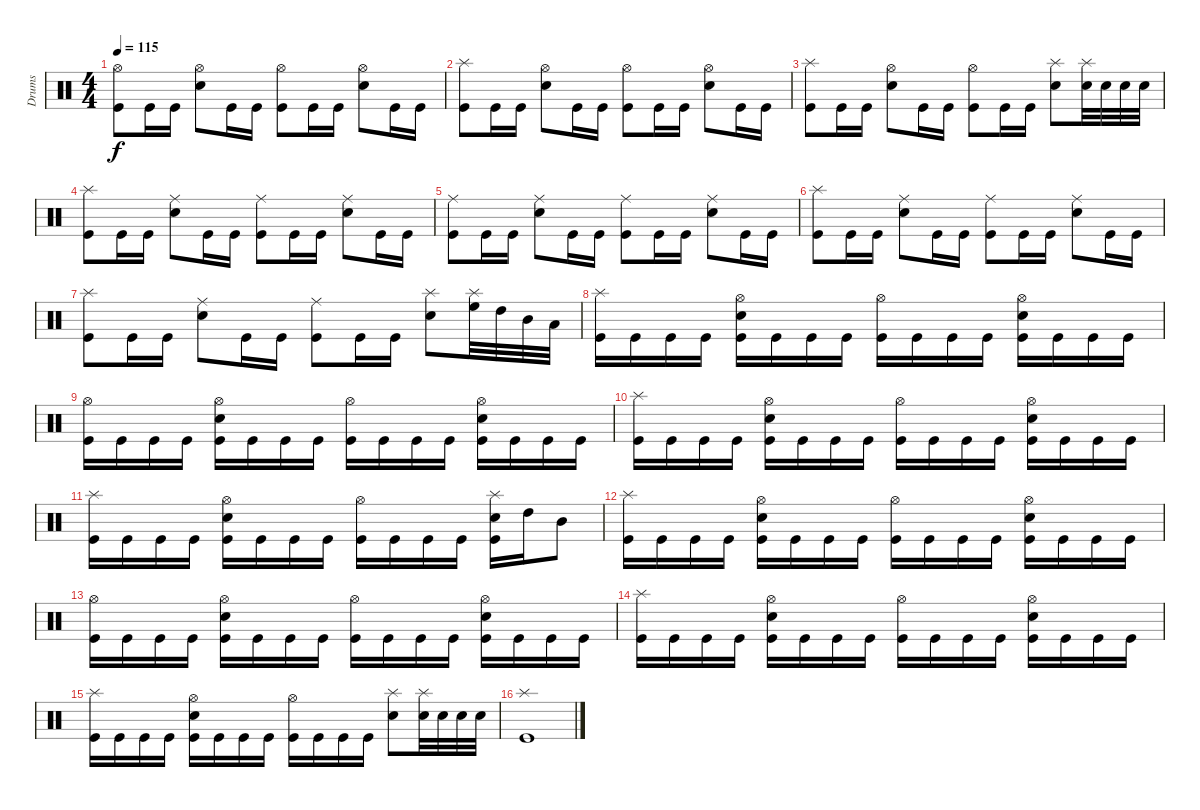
\track ("Drums" "Drums") {instrument percussion}
\staff {score}
\articulation defaults
\ts (4 4)
\tempo 115
\clef neutral
\ks c
("Hi-Hat (open)" "Kick (hit)").8{dy f} "Kick (hit)".16 "Kick (hit)".16 ("Hi-Hat (open)" "Snare (hit) 2").8 "Kick (hit)".16 "Kick (hit)".16 ("Hi-Hat (open)" "Kick (hit)").8 "Kick (hit)".16 "Kick (hit)".16 ("Hi-Hat (open)" "Snare (hit) 2").8 "Kick (hit)".16 "Kick (hit)".16 |
("Splash (hit)" "Kick (hit)").8 "Kick (hit)".16 "Kick (hit)".16 ("Hi-Hat (open)" "Snare (hit) 2").8 "Kick (hit)".16 "Kick (hit)".16 ("Hi-Hat (open)" "Kick (hit)").8 "Kick (hit)".16 "Kick (hit)".16 ("Hi-Hat (open)" "Snare (hit) 2").8 "Kick (hit)".16 "Kick (hit)".16 |
("Splash (hit)" "Kick (hit)").8 "Kick (hit)".16 "Kick (hit)".16 ("Hi-Hat (open)" "Snare (hit) 2").8 "Kick (hit)".16 "Kick (hit)".16 ("Hi-Hat (open)" "Kick (hit)").8 "Kick (hit)".16 "Kick (hit)".16 ("Splash (hit)" "Snare (hit) 2").8 ("Splash (hit)" "Snare (hit) 2").32 "Snare (hit) 2".32 "Snare (hit) 2".32 "Snare (hit) 2".32 |
("Splash (hit)" "Kick (hit)").8 "Kick (hit)".16 "Kick (hit)".16 ("Ride (middle)" "Snare (hit) 2").8 "Kick (hit)".16 "Kick (hit)".16 ("Ride (middle)" "Kick (hit)").8 "Kick (hit)".16 "Kick (hit)".16 ("Ride (middle)" "Snare (hit) 2").8 "Kick (hit)".16 "Kick (hit)".16 |
("Ride (middle)" "Kick (hit)").8 "Kick (hit)".16 "Kick (hit)".16 ("Ride (middle)" "Snare (hit) 2").8 "Kick (hit)".16 "Kick (hit)".16 ("Ride (middle)" "Kick (hit)").8 "Kick (hit)".16 "Kick (hit)".16 ("Ride (middle)" "Snare (hit) 2").8 "Kick (hit)".16 "Kick (hit)".16 |
("Splash (hit)" "Kick (hit)").8 "Kick (hit)".16 "Kick (hit)".16 ("Ride (middle)" "Snare (hit) 2").8 "Kick (hit)".16 "Kick (hit)".16 ("Ride (middle)" "Kick (hit)").8 "Kick (hit)".16 "Kick (hit)".16 ("Ride (middle)" "Snare (hit) 2").8 "Kick (hit)".16 "Kick (hit)".16 |
("Splash (hit)" "Kick (hit)").8 "Kick (hit)".16 "Kick (hit)".16 ("Ride (middle)" "Snare (hit) 2").8 "Kick (hit)".16 "Kick (hit)".16 ("Ride (middle)" "Kick (hit)").8 "Kick (hit)".16 "Kick (hit)".16 ("Splash (hit)" "Snare (hit) 2").8 ("Splash (hit)" "High Floor Tom (hit)").32 "High Tom (hit)".32 "Mid Tom (hit)".32 "Low Tom (hit)".32 |
("Splash (hit)" "Kick (hit)").16 "Kick (hit)".16 "Kick (hit)".16 "Kick (hit)".16 ("Hi-Hat (open)" "Snare (hit) 2" "Kick (hit)").16 "Kick (hit)".16 "Kick (hit)".16 "Kick (hit)".16 ("Hi-Hat (open)" "Kick (hit)").16 "Kick (hit)".16 "Kick (hit)".16 "Kick (hit)".16 ("Hi-Hat (open)" "Snare (hit) 2" "Kick (hit)").16 "Kick (hit)".16 "Kick (hit)".16 "Kick (hit)".16 |
("Hi-Hat (open)" "Kick (hit)").16 "Kick (hit)".16 "Kick (hit)".16 "Kick (hit)".16 ("Hi-Hat (open)" "Snare (hit) 2" "Kick (hit)").16 "Kick (hit)".16 "Kick (hit)".16 "Kick (hit)".16 ("Hi-Hat (open)" "Kick (hit)").16 "Kick (hit)".16 "Kick (hit)".16 "Kick (hit)".16 ("Hi-Hat (open)" "Snare (hit) 2" "Kick (hit)").16 "Kick (hit)".16 "Kick (hit)".16 "Kick (hit)".16 |
("Splash (hit)" "Kick (hit)").16 "Kick (hit)".16 "Kick (hit)".16 "Kick (hit)".16 ("Hi-Hat (open)" "Snare (hit) 2" "Kick (hit)").16 "Kick (hit)".16 "Kick (hit)".16 "Kick (hit)".16 ("Hi-Hat (open)" "Kick (hit)").16 "Kick (hit)".16 "Kick (hit)".16 "Kick (hit)".16 ("Hi-Hat (open)" "Snare (hit) 2" "Kick (hit)").16 "Kick (hit)".16 "Kick (hit)".16 "Kick (hit)".16 |
("Splash (hit)" "Kick (hit)").16 "Kick (hit)".16 "Kick (hit)".16 "Kick (hit)".16 ("Hi-Hat (open)" "Snare (hit) 2" "Kick (hit)").16 "Kick (hit)".16 "Kick (hit)".16 "Kick (hit)".16 ("Hi-Hat (open)" "Kick (hit)").16 "Kick (hit)".16 "Kick (hit)".16 "Kick (hit)".16 ("Splash (hit)" "Snare (hit) 2" "Kick (hit)").16 "High Tom (hit)".16 "Mid Tom (hit)".8 |
("Splash (hit)" "Kick (hit)").16 "Kick (hit)".16 "Kick (hit)".16 "Kick (hit)".16 ("Hi-Hat (open)" "Snare (hit) 2" "Kick (hit)").16 "Kick (hit)".16 "Kick (hit)".16 "Kick (hit)".16 ("Hi-Hat (open)" "Kick (hit)").16 "Kick (hit)".16 "Kick (hit)".16 "Kick (hit)".16 ("Hi-Hat (open)" "Snare (hit) 2" "Kick (hit)").16 "Kick (hit)".16 "Kick (hit)".16 "Kick (hit)".16 |
("Hi-Hat (open)" "Kick (hit)").16 "Kick (hit)".16 "Kick (hit)".16 "Kick (hit)".16 ("Hi-Hat (open)" "Snare (hit) 2" "Kick (hit)").16 "Kick (hit)".16 "Kick (hit)".16 "Kick (hit)".16 ("Hi-Hat (open)" "Kick (hit)").16 "Kick (hit)".16 "Kick (hit)".16 "Kick (hit)".16 ("Hi-Hat (open)" "Snare (hit) 2" "Kick (hit)").16 "Kick (hit)".16 "Kick (hit)".16 "Kick (hit)".16 |
("Splash (hit)" "Kick (hit)").16 "Kick (hit)".16 "Kick (hit)".16 "Kick (hit)".16 ("Hi-Hat (open)" "Snare (hit) 2" "Kick (hit)").16 "Kick (hit)".16 "Kick (hit)".16 "Kick (hit)".16 ("Hi-Hat (open)" "Kick (hit)").16 "Kick (hit)".16 "Kick (hit)".16 "Kick (hit)".16 ("Hi-Hat (open)" "Snare (hit) 2" "Kick (hit)").16 "Kick (hit)".16 "Kick (hit)".16 "Kick (hit)".16 |
("Splash (hit)" "Kick (hit)").16 "Kick (hit)".16 "Kick (hit)".16 "Kick (hit)".16 ("Hi-Hat (open)" "Snare (hit) 2" "Kick (hit)").16 "Kick (hit)".16 "Kick (hit)".16 "Kick (hit)".16 ("Hi-Hat (open)" "Kick (hit)").16 "Kick (hit)".16 "Kick (hit)".16 "Kick (hit)".16 ("Splash (hit)" "Snare (hit) 2").8 ("Splash (hit)" "Snare (hit) 2").32 "Snare (hit) 2".32 "Snare (hit) 2".32 "Snare (hit) 2".32 |
("Splash (hit)" "Kick (hit)").1
